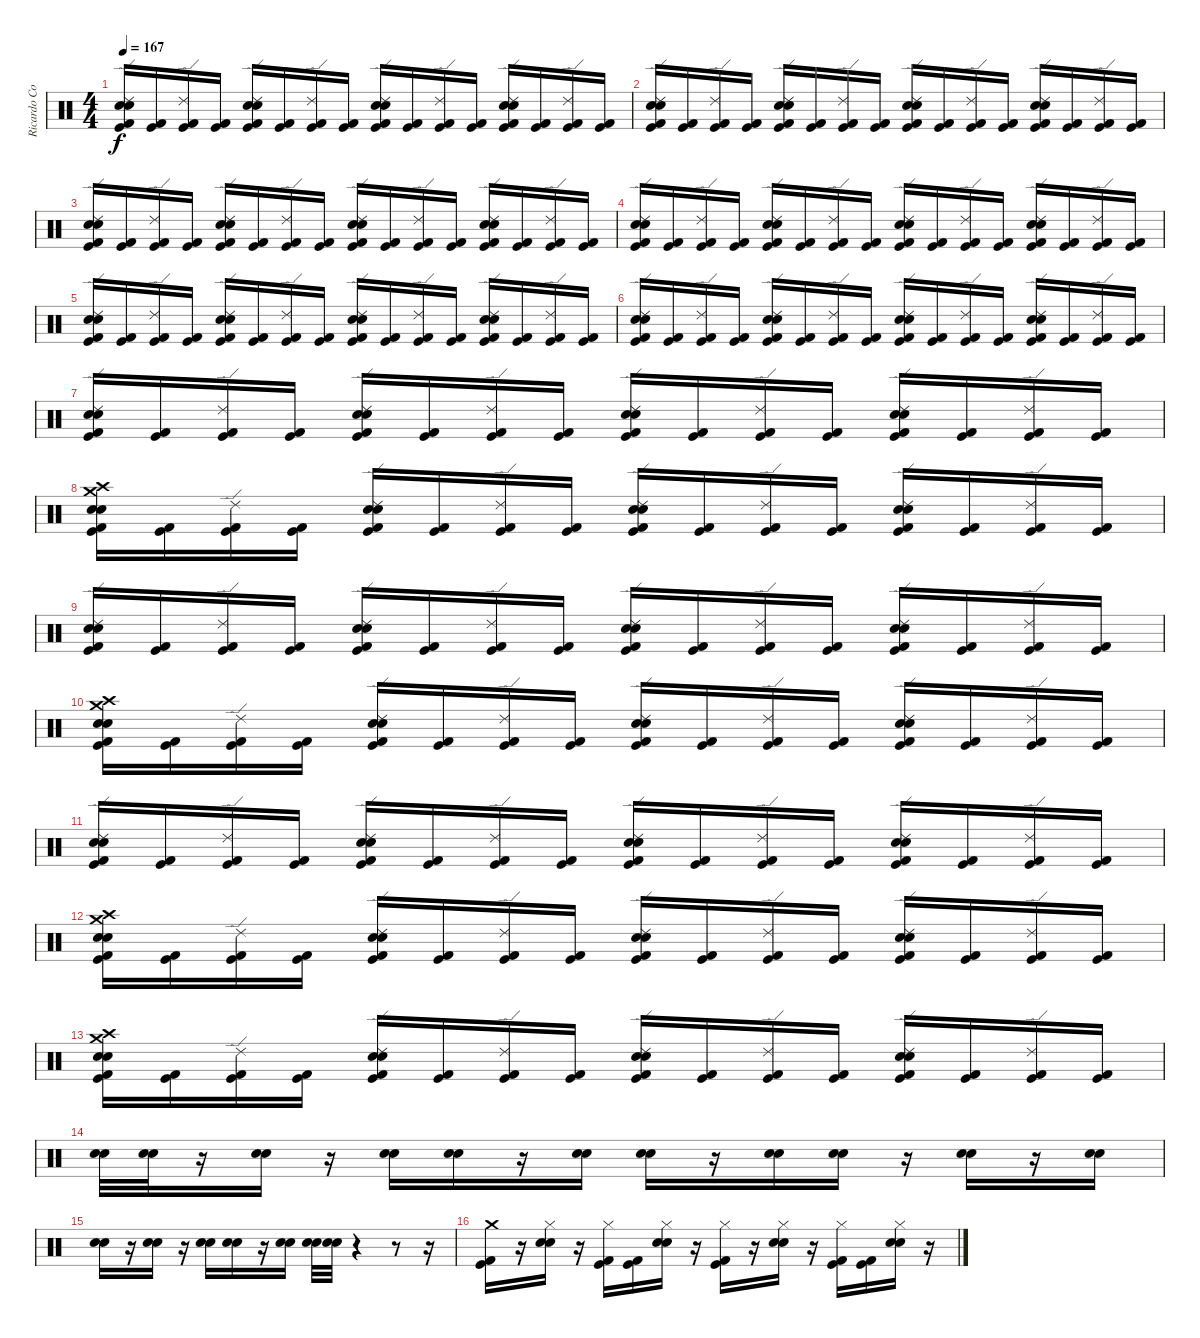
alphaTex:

\track ("Ricardo Confessori" "Ricardo Co") {instrument percussion}
\staff {score}
\articulation defaults
\ts (4 4)
\tempo 167
\clef neutral
\ks c
("Electric Snare (hit)" "Snare (hit) 2" "Ride (edge) 2" "Kick (hit) 2" "Kick (hit)").16{dy f} ("Kick (hit) 2" "Kick (hit)").16 ("Ride (edge) 2" "Kick (hit) 2" "Kick (hit)").16 ("Kick (hit) 2" "Kick (hit)").16 ("Electric Snare (hit)" "Snare (hit) 2" "Ride (edge) 2" "Kick (hit) 2" "Kick (hit)").16 ("Kick (hit) 2" "Kick (hit)").16 ("Ride (edge) 2" "Kick (hit) 2" "Kick (hit)").16 ("Kick (hit) 2" "Kick (hit)").16 ("Snare (hit) 2" "Electric Snare (hit)" "Ride (edge) 2" "Kick (hit) 2" "Kick (hit)").16 ("Kick (hit) 2" "Kick (hit)").16 ("Ride (edge) 2" "Kick (hit) 2" "Kick (hit)").16 ("Kick (hit) 2" "Kick (hit)").16 ("Electric Snare (hit)" "Snare (hit) 2" "Ride (edge) 2" "Kick (hit) 2" "Kick (hit)").16 ("Kick (hit) 2" "Kick (hit)").16 ("Ride (edge) 2" "Kick (hit) 2" "Kick (hit)").16 ("Kick (hit) 2" "Kick (hit)").16 |
("Electric Snare (hit)" "Snare (hit) 2" "Ride (edge) 2" "Kick (hit) 2" "Kick (hit)").16 ("Kick (hit) 2" "Kick (hit)").16 ("Ride (edge) 2" "Kick (hit) 2" "Kick (hit)").16 ("Kick (hit) 2" "Kick (hit)").16 ("Electric Snare (hit)" "Snare (hit) 2" "Ride (edge) 2" "Kick (hit) 2" "Kick (hit)").16 ("Kick (hit) 2" "Kick (hit)").16 ("Ride (edge) 2" "Kick (hit) 2" "Kick (hit)").16 ("Kick (hit) 2" "Kick (hit)").16 ("Snare (hit) 2" "Electric Snare (hit)" "Ride (edge) 2" "Kick (hit) 2" "Kick (hit)").16 ("Kick (hit) 2" "Kick (hit)").16 ("Ride (edge) 2" "Kick (hit) 2" "Kick (hit)").16 ("Kick (hit) 2" "Kick (hit)").16 ("Electric Snare (hit)" "Snare (hit) 2" "Ride (edge) 2" "Kick (hit) 2" "Kick (hit)").16 ("Kick (hit) 2" "Kick (hit)").16 ("Ride (edge) 2" "Kick (hit) 2" "Kick (hit)").16 ("Kick (hit) 2" "Kick (hit)").16 |
("Electric Snare (hit)" "Snare (hit) 2" "Ride (edge) 2" "Kick (hit) 2" "Kick (hit)").16 ("Kick (hit) 2" "Kick (hit)").16 ("Ride (edge) 2" "Kick (hit) 2" "Kick (hit)").16 ("Kick (hit) 2" "Kick (hit)").16 ("Electric Snare (hit)" "Snare (hit) 2" "Ride (edge) 2" "Kick (hit) 2" "Kick (hit)").16 ("Kick (hit) 2" "Kick (hit)").16 ("Ride (edge) 2" "Kick (hit) 2" "Kick (hit)").16 ("Kick (hit) 2" "Kick (hit)").16 ("Snare (hit) 2" "Electric Snare (hit)" "Ride (edge) 2" "Kick (hit) 2" "Kick (hit)").16 ("Kick (hit) 2" "Kick (hit)").16 ("Ride (edge) 2" "Kick (hit) 2" "Kick (hit)").16 ("Kick (hit) 2" "Kick (hit)").16 ("Electric Snare (hit)" "Snare (hit) 2" "Ride (edge) 2" "Kick (hit) 2" "Kick (hit)").16 ("Kick (hit) 2" "Kick (hit)").16 ("Ride (edge) 2" "Kick (hit) 2" "Kick (hit)").16 ("Kick (hit) 2" "Kick (hit)").16 |
("Electric Snare (hit)" "Snare (hit) 2" "Ride (edge) 2" "Kick (hit) 2" "Kick (hit)").16 ("Kick (hit) 2" "Kick (hit)").16 ("Ride (edge) 2" "Kick (hit) 2" "Kick (hit)").16 ("Kick (hit) 2" "Kick (hit)").16 ("Electric Snare (hit)" "Snare (hit) 2" "Ride (edge) 2" "Kick (hit) 2" "Kick (hit)").16 ("Kick (hit) 2" "Kick (hit)").16 ("Ride (edge) 2" "Kick (hit) 2" "Kick (hit)").16 ("Kick (hit) 2" "Kick (hit)").16 ("Snare (hit) 2" "Electric Snare (hit)" "Ride (edge) 2" "Kick (hit) 2" "Kick (hit)").16 ("Kick (hit) 2" "Kick (hit)").16 ("Ride (edge) 2" "Kick (hit) 2" "Kick (hit)").16 ("Kick (hit) 2" "Kick (hit)").16 ("Electric Snare (hit)" "Snare (hit) 2" "Ride (edge) 2" "Kick (hit) 2" "Kick (hit)").16 ("Kick (hit) 2" "Kick (hit)").16 ("Ride (edge) 2" "Kick (hit) 2" "Kick (hit)").16 ("Kick (hit) 2" "Kick (hit)").16 |
("Electric Snare (hit)" "Snare (hit) 2" "Ride (edge) 2" "Kick (hit) 2" "Kick (hit)").16 ("Kick (hit) 2" "Kick (hit)").16 ("Ride (edge) 2" "Kick (hit) 2" "Kick (hit)").16 ("Kick (hit) 2" "Kick (hit)").16 ("Electric Snare (hit)" "Snare (hit) 2" "Ride (edge) 2" "Kick (hit) 2" "Kick (hit)").16 ("Kick (hit) 2" "Kick (hit)").16 ("Ride (edge) 2" "Kick (hit) 2" "Kick (hit)").16 ("Kick (hit) 2" "Kick (hit)").16 ("Snare (hit) 2" "Electric Snare (hit)" "Ride (edge) 2" "Kick (hit) 2" "Kick (hit)").16 ("Kick (hit) 2" "Kick (hit)").16 ("Ride (edge) 2" "Kick (hit) 2" "Kick (hit)").16 ("Kick (hit) 2" "Kick (hit)").16 ("Electric Snare (hit)" "Snare (hit) 2" "Ride (edge) 2" "Kick (hit) 2" "Kick (hit)").16 ("Kick (hit) 2" "Kick (hit)").16 ("Ride (edge) 2" "Kick (hit) 2" "Kick (hit)").16 ("Kick (hit) 2" "Kick (hit)").16 |
("Electric Snare (hit)" "Snare (hit) 2" "Ride (edge) 2" "Kick (hit) 2" "Kick (hit)").16 ("Kick (hit) 2" "Kick (hit)").16 ("Ride (edge) 2" "Kick (hit) 2" "Kick (hit)").16 ("Kick (hit) 2" "Kick (hit)").16 ("Electric Snare (hit)" "Snare (hit) 2" "Ride (edge) 2" "Kick (hit) 2" "Kick (hit)").16 ("Kick (hit) 2" "Kick (hit)").16 ("Ride (edge) 2" "Kick (hit) 2" "Kick (hit)").16 ("Kick (hit) 2" "Kick (hit)").16 ("Snare (hit) 2" "Electric Snare (hit)" "Ride (edge) 2" "Kick (hit) 2" "Kick (hit)").16 ("Kick (hit) 2" "Kick (hit)").16 ("Ride (edge) 2" "Kick (hit) 2" "Kick (hit)").16 ("Kick (hit) 2" "Kick (hit)").16 ("Electric Snare (hit)" "Snare (hit) 2" "Ride (edge) 2" "Kick (hit) 2" "Kick (hit)").16 ("Kick (hit) 2" "Kick (hit)").16 ("Ride (edge) 2" "Kick (hit) 2" "Kick (hit)").16 ("Kick (hit) 2" "Kick (hit)").16 |
("Electric Snare (hit)" "Snare (hit) 2" "Ride (edge) 2" "Kick (hit) 2" "Kick (hit)").16 ("Kick (hit) 2" "Kick (hit)").16 ("Ride (edge) 2" "Kick (hit) 2" "Kick (hit)").16 ("Kick (hit) 2" "Kick (hit)").16 ("Electric Snare (hit)" "Snare (hit) 2" "Ride (edge) 2" "Kick (hit) 2" "Kick (hit)").16 ("Kick (hit) 2" "Kick (hit)").16 ("Ride (edge) 2" "Kick (hit) 2" "Kick (hit)").16 ("Kick (hit) 2" "Kick (hit)").16 ("Snare (hit) 2" "Electric Snare (hit)" "Ride (edge) 2" "Kick (hit) 2" "Kick (hit)").16 ("Kick (hit) 2" "Kick (hit)").16 ("Ride (edge) 2" "Kick (hit) 2" "Kick (hit)").16 ("Kick (hit) 2" "Kick (hit)").16 ("Electric Snare (hit)" "Snare (hit) 2" "Ride (edge) 2" "Kick (hit) 2" "Kick (hit)").16 ("Kick (hit) 2" "Kick (hit)").16 ("Ride (edge) 2" "Kick (hit) 2" "Kick (hit)").16 ("Kick (hit) 2" "Kick (hit)").16 |
("Crash high (hit)" "Crash medium (hit)" "Electric Snare (hit)" "Snare (hit) 2" "Kick (hit) 2" "Kick (hit)").16 ("Kick (hit) 2" "Kick (hit)").16 ("Ride (edge) 2" "Kick (hit) 2" "Kick (hit)").16 ("Kick (hit) 2" "Kick (hit)").16 ("Electric Snare (hit)" "Snare (hit) 2" "Ride (edge) 2" "Kick (hit) 2" "Kick (hit)").16 ("Kick (hit) 2" "Kick (hit)").16 ("Ride (edge) 2" "Kick (hit) 2" "Kick (hit)").16 ("Kick (hit) 2" "Kick (hit)").16 ("Snare (hit) 2" "Electric Snare (hit)" "Ride (edge) 2" "Kick (hit) 2" "Kick (hit)").16 ("Kick (hit) 2" "Kick (hit)").16 ("Ride (edge) 2" "Kick (hit) 2" "Kick (hit)").16 ("Kick (hit) 2" "Kick (hit)").16 ("Electric Snare (hit)" "Snare (hit) 2" "Ride (edge) 2" "Kick (hit) 2" "Kick (hit)").16 ("Kick (hit) 2" "Kick (hit)").16 ("Ride (edge) 2" "Kick (hit) 2" "Kick (hit)").16 ("Kick (hit) 2" "Kick (hit)").16 |
("Electric Snare (hit)" "Snare (hit) 2" "Ride (edge) 2" "Kick (hit) 2" "Kick (hit)").16 ("Kick (hit) 2" "Kick (hit)").16 ("Ride (edge) 2" "Kick (hit) 2" "Kick (hit)").16 ("Kick (hit) 2" "Kick (hit)").16 ("Electric Snare (hit)" "Snare (hit) 2" "Ride (edge) 2" "Kick (hit) 2" "Kick (hit)").16 ("Kick (hit) 2" "Kick (hit)").16 ("Ride (edge) 2" "Kick (hit) 2" "Kick (hit)").16 ("Kick (hit) 2" "Kick (hit)").16 ("Snare (hit) 2" "Electric Snare (hit)" "Ride (edge) 2" "Kick (hit) 2" "Kick (hit)").16 ("Kick (hit) 2" "Kick (hit)").16 ("Ride (edge) 2" "Kick (hit) 2" "Kick (hit)").16 ("Kick (hit) 2" "Kick (hit)").16 ("Electric Snare (hit)" "Snare (hit) 2" "Ride (edge) 2" "Kick (hit) 2" "Kick (hit)").16 ("Kick (hit) 2" "Kick (hit)").16 ("Ride (edge) 2" "Kick (hit) 2" "Kick (hit)").16 ("Kick (hit) 2" "Kick (hit)").16 |
("Crash high (hit)" "Crash medium (hit)" "Electric Snare (hit)" "Snare (hit) 2" "Kick (hit) 2" "Kick (hit)").16 ("Kick (hit) 2" "Kick (hit)").16 ("Ride (edge) 2" "Kick (hit) 2" "Kick (hit)").16 ("Kick (hit) 2" "Kick (hit)").16 ("Electric Snare (hit)" "Snare (hit) 2" "Ride (edge) 2" "Kick (hit) 2" "Kick (hit)").16 ("Kick (hit) 2" "Kick (hit)").16 ("Ride (edge) 2" "Kick (hit) 2" "Kick (hit)").16 ("Kick (hit) 2" "Kick (hit)").16 ("Snare (hit) 2" "Electric Snare (hit)" "Ride (edge) 2" "Kick (hit) 2" "Kick (hit)").16 ("Kick (hit) 2" "Kick (hit)").16 ("Ride (edge) 2" "Kick (hit) 2" "Kick (hit)").16 ("Kick (hit) 2" "Kick (hit)").16 ("Electric Snare (hit)" "Snare (hit) 2" "Ride (edge) 2" "Kick (hit) 2" "Kick (hit)").16 ("Kick (hit) 2" "Kick (hit)").16 ("Ride (edge) 2" "Kick (hit) 2" "Kick (hit)").16 ("Kick (hit) 2" "Kick (hit)").16 |
("Electric Snare (hit)" "Snare (hit) 2" "Ride (edge) 2" "Kick (hit) 2" "Kick (hit)").16 ("Kick (hit) 2" "Kick (hit)").16 ("Ride (edge) 2" "Kick (hit) 2" "Kick (hit)").16 ("Kick (hit) 2" "Kick (hit)").16 ("Electric Snare (hit)" "Snare (hit) 2" "Ride (edge) 2" "Kick (hit) 2" "Kick (hit)").16 ("Kick (hit) 2" "Kick (hit)").16 ("Ride (edge) 2" "Kick (hit) 2" "Kick (hit)").16 ("Kick (hit) 2" "Kick (hit)").16 ("Snare (hit) 2" "Electric Snare (hit)" "Ride (edge) 2" "Kick (hit) 2" "Kick (hit)").16 ("Kick (hit) 2" "Kick (hit)").16 ("Ride (edge) 2" "Kick (hit) 2" "Kick (hit)").16 ("Kick (hit) 2" "Kick (hit)").16 ("Electric Snare (hit)" "Snare (hit) 2" "Ride (edge) 2" "Kick (hit) 2" "Kick (hit)").16 ("Kick (hit) 2" "Kick (hit)").16 ("Ride (edge) 2" "Kick (hit) 2" "Kick (hit)").16 ("Kick (hit) 2" "Kick (hit)").16 |
("Crash high (hit)" "Crash medium (hit)" "Electric Snare (hit)" "Snare (hit) 2" "Kick (hit) 2" "Kick (hit)").16 ("Kick (hit) 2" "Kick (hit)").16 ("Ride (edge) 2" "Kick (hit) 2" "Kick (hit)").16 ("Kick (hit) 2" "Kick (hit)").16 ("Electric Snare (hit)" "Snare (hit) 2" "Ride (edge) 2" "Kick (hit) 2" "Kick (hit)").16 ("Kick (hit) 2" "Kick (hit)").16 ("Ride (edge) 2" "Kick (hit) 2" "Kick (hit)").16 ("Kick (hit) 2" "Kick (hit)").16 ("Snare (hit) 2" "Electric Snare (hit)" "Ride (edge) 2" "Kick (hit) 2" "Kick (hit)").16 ("Kick (hit) 2" "Kick (hit)").16 ("Ride (edge) 2" "Kick (hit) 2" "Kick (hit)").16 ("Kick (hit) 2" "Kick (hit)").16 ("Electric Snare (hit)" "Snare (hit) 2" "Ride (edge) 2" "Kick (hit) 2" "Kick (hit)").16 ("Kick (hit) 2" "Kick (hit)").16 ("Ride (edge) 2" "Kick (hit) 2" "Kick (hit)").16 ("Kick (hit) 2" "Kick (hit)").16 |
("Crash high (hit)" "Crash medium (hit)" "Electric Snare (hit)" "Snare (hit) 2" "Kick (hit) 2" "Kick (hit)").16 ("Kick (hit) 2" "Kick (hit)").16 ("Ride (edge) 2" "Kick (hit) 2" "Kick (hit)").16 ("Kick (hit) 2" "Kick (hit)").16 ("Electric Snare (hit)" "Snare (hit) 2" "Ride (edge) 2" "Kick (hit) 2" "Kick (hit)").16 ("Kick (hit) 2" "Kick (hit)").16 ("Ride (edge) 2" "Kick (hit) 2" "Kick (hit)").16 ("Kick (hit) 2" "Kick (hit)").16 ("Snare (hit) 2" "Electric Snare (hit)" "Ride (edge) 2" "Kick (hit) 2" "Kick (hit)").16 ("Kick (hit) 2" "Kick (hit)").16 ("Ride (edge) 2" "Kick (hit) 2" "Kick (hit)").16 ("Kick (hit) 2" "Kick (hit)").16 ("Electric Snare (hit)" "Snare (hit) 2" "Ride (edge) 2" "Kick (hit) 2" "Kick (hit)").16 ("Kick (hit) 2" "Kick (hit)").16 ("Ride (edge) 2" "Kick (hit) 2" "Kick (hit)").16 ("Kick (hit) 2" "Kick (hit)").16 |
("Electric Snare (hit)" "Snare (hit) 2").32 ("Electric Snare (hit)" "Snare (hit) 2").32 r.16 ("Electric Snare (hit)" "Snare (hit) 2").16 r.16 ("Electric Snare (hit)" "Snare (hit) 2").16 ("Electric Snare (hit)" "Snare (hit) 2").16 r.16 ("Electric Snare (hit)" "Snare (hit) 2").16 ("Electric Snare (hit)" "Snare (hit) 2").16 r.16 ("Electric Snare (hit)" "Snare (hit) 2").16 ("Electric Snare (hit)" "Snare (hit) 2").16 r.16 ("Electric Snare (hit)" "Snare (hit) 2").16 r.16 ("Electric Snare (hit)" "Snare (hit) 2").16 |
("Electric Snare (hit)" "Snare (hit) 2").16 r.16 ("Electric Snare (hit)" "Snare (hit) 2").16 r.16 ("Electric Snare (hit)" "Snare (hit) 2").16 ("Electric Snare (hit)" "Snare (hit) 2").16 r.16 ("Electric Snare (hit)" "Snare (hit) 2").16 ("Electric Snare (hit)" "Snare (hit) 2").32 ("Electric Snare (hit)" "Snare (hit) 2").32 r.4 r.8 r.16 |
("Crash medium (hit)" "Kick (hit) 2" "Kick (hit)").16 r.16 ("Hi-Hat (closed)" "Electric Snare (hit)" "Snare (hit) 2").16 r.16 ("Kick (hit) 2" "Kick (hit)" "Hi-Hat (closed)").16 ("Kick (hit) 2" "Kick (hit)").16 ("Electric Snare (hit)" "Snare (hit) 2" "Hi-Hat (closed)").16 r.16 ("Kick (hit) 2" "Kick (hit)" "Hi-Hat (closed)").16 r.16 ("Electric Snare (hit)" "Snare (hit) 2" "Hi-Hat (closed)").16 r.16 ("Kick (hit) 2" "Kick (hit)" "Hi-Hat (closed)").16 ("Kick (hit) 2" "Kick (hit)").16 ("Electric Snare (hit)" "Snare (hit) 2" "Hi-Hat (closed)").16 r.16
